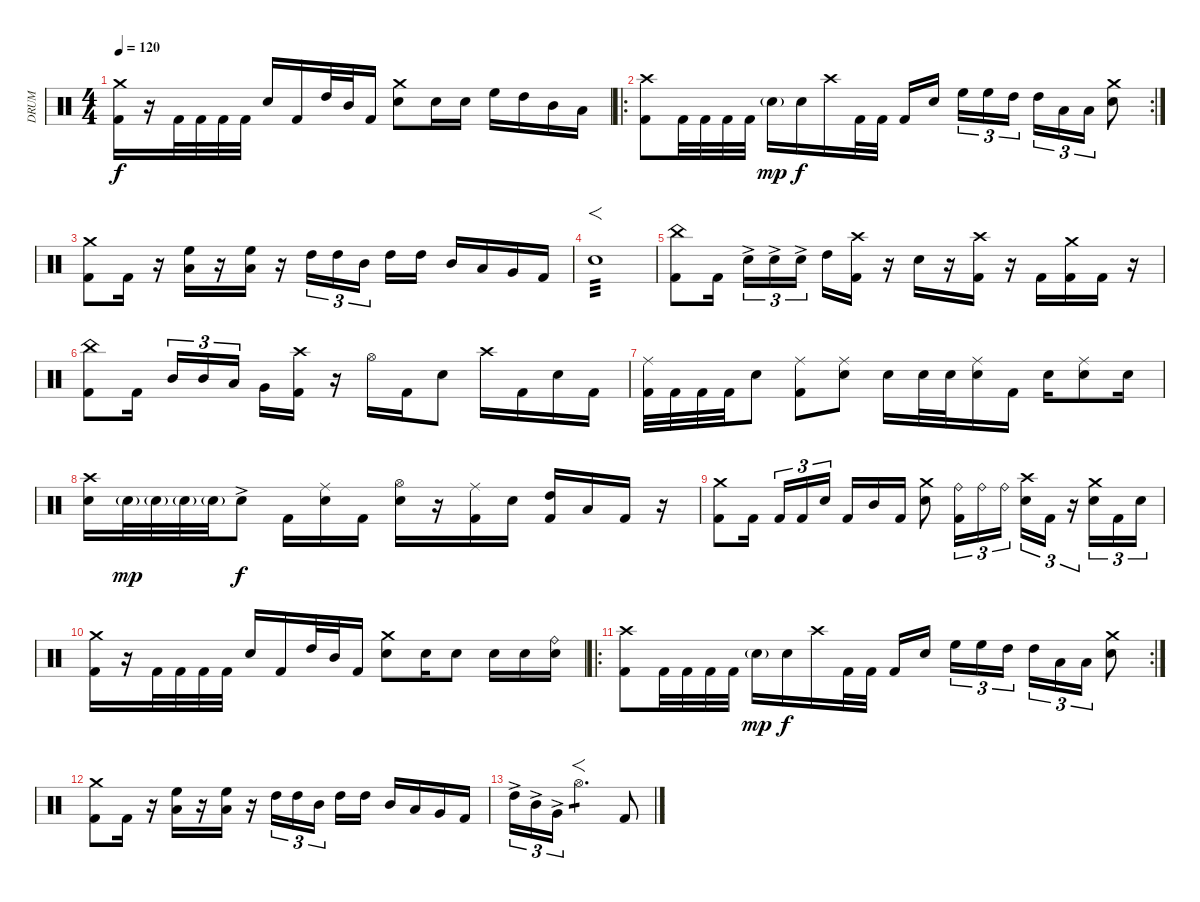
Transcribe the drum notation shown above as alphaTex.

\track ("DRUM" "DRUM") {instrument percussion}
\staff {score}
\articulation defaults
\ts (4 4)
\tempo 120
\clef neutral
\ks c
("Crash medium (hit)" "Kick (hit) 2").16{dy f} r.16 "Kick (hit) 2".32 "Kick (hit) 2".32 "Kick (hit) 2".32 "Kick (hit) 2".32 "Electric Snare (hit)".16 "Kick (hit) 2".16 "High Tom (hit)".32 "Mid Tom (hit)".32 "Kick (hit) 2".16 ("Crash medium (hit)" "Electric Snare (hit)").8 "Snare (hit) 2".16 "Snare (hit) 2".16 "High Floor Tom (hit)".16 "High Tom (hit)".16 "Mid Tom (hit)".16 "Low Tom (hit)".16 |
\ro
\rc 2
("Crash high (hit)" "Kick (hit) 2").8 "Kick (hit) 2".32 "Kick (hit) 2".32 "Kick (hit) 2".32 "Kick (hit) 2".32 "Electric Snare (hit)"{g}.16{dy mp} "Electric Snare (hit)".16{dy f} "Crash high (hit)".16 "Kick (hit) 2".32 "Kick (hit) 2".32 "Kick (hit) 2".16 "Electric Snare (hit)".16{beam splitsecondary} "High Floor Tom (hit)".16{tu (3 2)} "High Floor Tom (hit)".16{tu (3 2)} "High Tom (hit)".16{tu (3 2)} "High Tom (hit)".16{tu (3 2)} "Low Tom (hit)".16{tu (3 2)} "Low Tom (hit)".16{tu (3 2)} ("Crash medium (hit)" "Electric Snare (hit)").8 |
("Crash medium (hit)" "Kick (hit) 2").8 "Kick (hit) 2".16 r.16 ("High Floor Tom (hit)" "Low Tom (hit)").16 r.16 ("High Floor Tom (hit)" "Low Tom (hit)").16 r.16 "High Tom (hit)".16{tu (3 2)} "High Tom (hit)".16{tu (3 2)} "Mid Tom (hit)".16{tu (3 2) beam splitsecondary} "High Tom (hit)".16 "High Tom (hit)".16 "Mid Tom (hit)".16 "Low Tom (hit)".16 "Very Low Tom (hit)".16 "Kick (hit) 2".16 |
"Electric Snare (hit)".1{f tp 3} |
("China (hit)" "Kick (hit) 2").8 "Kick (hit) 2".16{beam splitsecondary} "Electric Snare (hit)"{ac}.16{tu (3 2)} "Electric Snare (hit)"{ac}.16{tu (3 2)} "Electric Snare (hit)"{ac}.16{tu (3 2) beam splitsecondary} "High Tom (hit)".16 ("Crash high (hit)" "Kick (hit) 2").16 r.16 "Electric Snare (hit)".16 r.16 ("Crash high (hit)" "Kick (hit) 2").16 r.16 "Kick (hit) 2".16 ("Crash medium (hit)" "Kick (hit) 2").16 "Kick (hit) 2".16 r.16 |
("China (hit)" "Kick (hit) 2").8 "Kick (hit) 2".16{beam splitsecondary} "Mid Tom (hit)".16{tu (3 2)} "Mid Tom (hit)".16{tu (3 2)} "Low Tom (hit)".16{tu (3 2) beam splitsecondary} "Very Low Tom (hit)".16 ("Crash high (hit)" "Kick (hit) 2").16 r.16 "Hi-Hat (open)".16 "Kick (hit) 2".16 "Electric Snare (hit)".8 "Crash high (hit)".16 "Kick (hit) 2".16 "Electric Snare (hit)".16 "Kick (hit) 2".16 |
("Ride (middle)" "Kick (hit) 2").32 "Kick (hit) 2".32 "Kick (hit) 2".32 "Kick (hit) 2".32 "Electric Snare (hit)".8 ("Ride (middle)" "Kick (hit) 2").8 ("Ride (middle)" "Electric Snare (hit)").8 "Electric Snare (hit)".16 "Electric Snare (hit)".32 "Electric Snare (hit)".32 ("Ride (middle)" "Electric Snare (hit)").16 "Kick (hit) 2".16 "Electric Snare (hit)".16 ("Ride (middle)" "Electric Snare (hit)").8 "Electric Snare (hit)".16 |
("Crash high (hit)" "Electric Snare (hit)").16 "Electric Snare (hit)"{g}.32{dy mp} "Electric Snare (hit)"{g}.32 "Electric Snare (hit)"{g}.32 "Electric Snare (hit)"{g}.32 "Electric Snare (hit)"{ac}.8{dy f} "Kick (hit) 2".16 ("Ride (middle)" "Electric Snare (hit)").16 "Kick (hit) 2".16 ("Hi-Hat (open)" "Electric Snare (hit)").16 r.16 ("Ride (middle)" "Kick (hit) 2").16 "Snare (hit) 2".16 ("High Tom (hit)" "Kick (hit) 2").16 "Low Tom (hit)".16 "Kick (hit) 2".16 r.16 |
("Crash medium (hit)" "Kick (hit) 2").8 "Kick (hit) 2".16{beam splitsecondary} "Kick (hit) 2".16{tu (3 2)} "Kick (hit) 2".16{tu (3 2)} "Snare (hit) 2".16{tu (3 2) beam splitsecondary} "Kick (hit) 2".16 "Mid Tom (hit)".16 "Kick (hit) 2".16 ("Crash medium (hit)" "Electric Snare (hit)").8 ("Ride (bell)" "Kick (hit) 2").16{tu (3 2)} "Ride (bell)".16{tu (3 2)} "Ride (bell)".16{tu (3 2)} ("Crash high (hit)" "Electric Snare (hit)").16{tu (3 2)} "Kick (hit) 2".16{tu (3 2)} r.16{tu (3 2)} ("Crash medium (hit)" "Electric Snare (hit)").16{tu (3 2)} "Kick (hit) 2".16{tu (3 2)} "Snare (hit) 2".16{tu (3 2)} |
("Crash medium (hit)" "Kick (hit) 2").16 r.16 "Kick (hit) 2".32 "Kick (hit) 2".32 "Kick (hit) 2".32 "Kick (hit) 2".32 "Electric Snare (hit)".16 "Kick (hit) 2".16 "High Tom (hit)".32 "Mid Tom (hit)".32 "Kick (hit) 2".16 ("Crash medium (hit)" "Electric Snare (hit)").8 "Snare (hit) 2".16 "Snare (hit) 2".8 "Electric Snare (hit)".16 "Electric Snare (hit)".16 ("Ride (bell)" "Electric Snare (hit)").16 |
\ro
\rc 2
("Crash high (hit)" "Kick (hit) 2").8 "Kick (hit) 2".32 "Kick (hit) 2".32 "Kick (hit) 2".32 "Kick (hit) 2".32 "Electric Snare (hit)"{g}.16{dy mp} "Electric Snare (hit)".16{dy f} "Crash high (hit)".16 "Kick (hit) 2".32 "Kick (hit) 2".32 "Kick (hit) 2".16 "Electric Snare (hit)".16{beam splitsecondary} "High Floor Tom (hit)".16{tu (3 2)} "High Floor Tom (hit)".16{tu (3 2)} "High Tom (hit)".16{tu (3 2)} "High Tom (hit)".16{tu (3 2)} "Low Tom (hit)".16{tu (3 2)} "Low Tom (hit)".16{tu (3 2)} ("Crash medium (hit)" "Electric Snare (hit)").8 |
("Crash medium (hit)" "Kick (hit) 2").8 "Kick (hit) 2".16 r.16 ("High Floor Tom (hit)" "Low Tom (hit)").16 r.16 ("High Floor Tom (hit)" "Low Tom (hit)").16 r.16 "High Tom (hit)".16{tu (3 2)} "High Tom (hit)".16{tu (3 2)} "Mid Tom (hit)".16{tu (3 2) beam splitsecondary} "High Tom (hit)".16 "High Tom (hit)".16 "Mid Tom (hit)".16 "Low Tom (hit)".16 "Very Low Tom (hit)".16 "Kick (hit) 2".16 |
"High Tom (hit)"{ac}.16{tu (3 2)} "Mid Tom (hit)"{ac}.16{tu (3 2)} "Very Low Tom (hit)"{ac}.16{tu (3 2)} "Hi-Hat (open)".2{f d tp 1} "Kick (hit) 2".8
